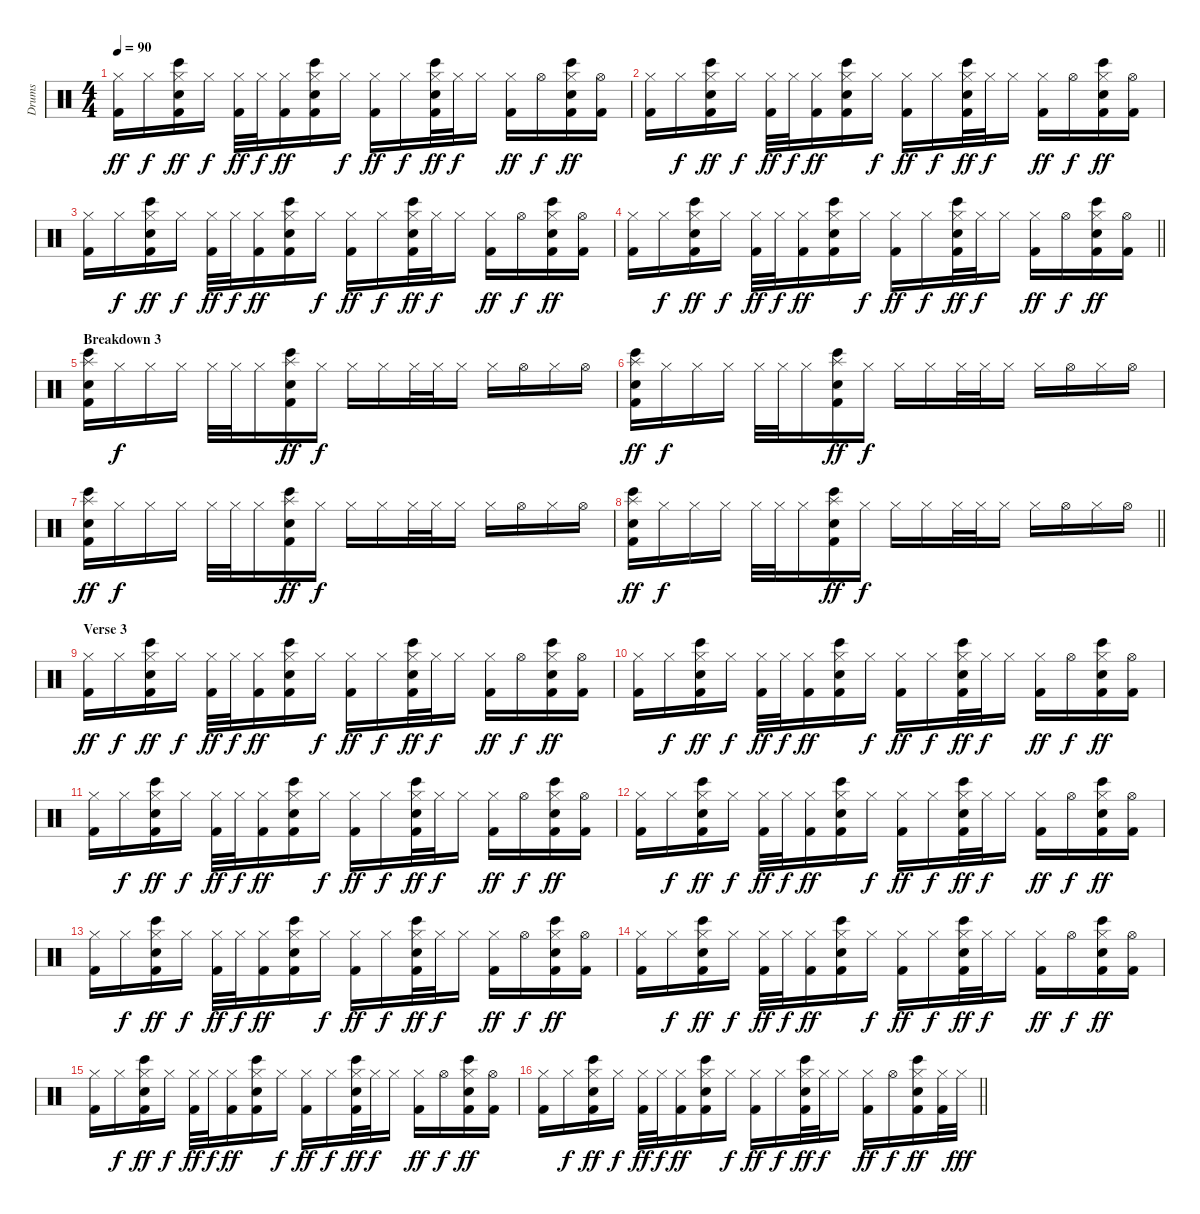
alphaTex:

\track ("Drums" "Drums") {instrument percussion}
\staff {score}
\articulation defaults
\ts (4 4)
\tempo 90
\clef neutral
\ks c
("Hi-Hat (closed)" "Kick (hit) 2").16{dy ff} "Hi-Hat (closed)".16{dy f} ("Hi-Hat (closed)" "Electric Snare (hit)" "Bongo High (hit)" "Kick (hit) 2").16{dy ff} "Hi-Hat (closed)".16{dy f} ("Hi-Hat (closed)" "Kick (hit) 2").32{dy ff} "Hi-Hat (closed)".32{dy f} ("Hi-Hat (closed)" "Kick (hit) 2").16{dy ff} ("Hi-Hat (closed)" "Electric Snare (hit)" "Bongo High (hit)" "Kick (hit) 2").16 "Hi-Hat (closed)".16{dy f} ("Hi-Hat (closed)" "Kick (hit) 2").16{dy ff} "Hi-Hat (closed)".16{dy f} ("Hi-Hat (closed)" "Electric Snare (hit)" "Bongo High (hit)" "Kick (hit) 2").32{dy ff} "Hi-Hat (closed)".32{dy f} "Hi-Hat (closed)".16 ("Hi-Hat (closed)" "Kick (hit) 2").16{dy ff} "Hi-Hat (open)".16{dy f} ("Hi-Hat (closed)" "Electric Snare (hit)" "Bongo High (hit)" "Kick (hit) 2").16{dy ff} ("Hi-Hat (open)" "Kick (hit) 2").16 |
("Hi-Hat (closed)" "Kick (hit) 2").16 "Hi-Hat (closed)".16{dy f} ("Hi-Hat (closed)" "Electric Snare (hit)" "Bongo High (hit)" "Kick (hit) 2").16{dy ff} "Hi-Hat (closed)".16{dy f} ("Hi-Hat (closed)" "Kick (hit) 2").32{dy ff} "Hi-Hat (closed)".32{dy f} ("Hi-Hat (closed)" "Kick (hit) 2").16{dy ff} ("Hi-Hat (closed)" "Electric Snare (hit)" "Bongo High (hit)" "Kick (hit) 2").16 "Hi-Hat (closed)".16{dy f} ("Hi-Hat (closed)" "Kick (hit) 2").16{dy ff} "Hi-Hat (closed)".16{dy f} ("Hi-Hat (closed)" "Electric Snare (hit)" "Bongo High (hit)" "Kick (hit) 2").32{dy ff} "Hi-Hat (closed)".32{dy f} "Hi-Hat (closed)".16 ("Hi-Hat (closed)" "Kick (hit) 2").16{dy ff} "Hi-Hat (open)".16{dy f} ("Hi-Hat (closed)" "Electric Snare (hit)" "Bongo High (hit)" "Kick (hit) 2").16{dy ff} ("Hi-Hat (open)" "Kick (hit) 2").16 |
("Hi-Hat (closed)" "Kick (hit) 2").16 "Hi-Hat (closed)".16{dy f} ("Hi-Hat (closed)" "Electric Snare (hit)" "Bongo High (hit)" "Kick (hit) 2").16{dy ff} "Hi-Hat (closed)".16{dy f} ("Hi-Hat (closed)" "Kick (hit) 2").32{dy ff} "Hi-Hat (closed)".32{dy f} ("Hi-Hat (closed)" "Kick (hit) 2").16{dy ff} ("Hi-Hat (closed)" "Electric Snare (hit)" "Bongo High (hit)" "Kick (hit) 2").16 "Hi-Hat (closed)".16{dy f} ("Hi-Hat (closed)" "Kick (hit) 2").16{dy ff} "Hi-Hat (closed)".16{dy f} ("Hi-Hat (closed)" "Electric Snare (hit)" "Bongo High (hit)" "Kick (hit) 2").32{dy ff} "Hi-Hat (closed)".32{dy f} "Hi-Hat (closed)".16 ("Hi-Hat (closed)" "Kick (hit) 2").16{dy ff} "Hi-Hat (open)".16{dy f} ("Hi-Hat (closed)" "Electric Snare (hit)" "Bongo High (hit)" "Kick (hit) 2").16{dy ff} ("Hi-Hat (open)" "Kick (hit) 2").16 |
\barLineRight lightlight
("Hi-Hat (closed)" "Kick (hit) 2").16 "Hi-Hat (closed)".16{dy f} ("Hi-Hat (closed)" "Electric Snare (hit)" "Bongo High (hit)" "Kick (hit) 2").16{dy ff} "Hi-Hat (closed)".16{dy f} ("Hi-Hat (closed)" "Kick (hit) 2").32{dy ff} "Hi-Hat (closed)".32{dy f} ("Hi-Hat (closed)" "Kick (hit) 2").16{dy ff} ("Hi-Hat (closed)" "Electric Snare (hit)" "Bongo High (hit)" "Kick (hit) 2").16 "Hi-Hat (closed)".16{dy f} ("Hi-Hat (closed)" "Kick (hit) 2").16{dy ff} "Hi-Hat (closed)".16{dy f} ("Hi-Hat (closed)" "Electric Snare (hit)" "Bongo High (hit)" "Kick (hit) 2").32{dy ff} "Hi-Hat (closed)".32{dy f} "Hi-Hat (closed)".16 ("Hi-Hat (closed)" "Kick (hit) 2").16{dy ff} "Hi-Hat (open)".16{dy f} ("Hi-Hat (closed)" "Electric Snare (hit)" "Bongo High (hit)" "Kick (hit) 2").16{dy ff} ("Hi-Hat (open)" "Kick (hit) 2").16 |
\section ("" "Breakdown 3")
("Splash (hit)" "Electric Snare (hit)" "Bongo High (hit)" "Kick (hit) 2").16 "Hi-Hat (closed)".16{dy f} "Hi-Hat (closed)".16 "Hi-Hat (closed)".16 "Hi-Hat (closed)".32 "Hi-Hat (closed)".32 "Hi-Hat (closed)".16 ("Splash (hit)" "Electric Snare (hit)" "Bongo High (hit)" "Kick (hit) 2").16{dy ff} "Hi-Hat (closed)".16{dy f} "Hi-Hat (closed)".16 "Hi-Hat (closed)".16 "Hi-Hat (closed)".32 "Hi-Hat (closed)".32 "Hi-Hat (closed)".16 "Hi-Hat (closed)".16 "Hi-Hat (open)".16 "Hi-Hat (closed)".16 "Hi-Hat (open)".16 |
("Splash (hit)" "Electric Snare (hit)" "Bongo High (hit)" "Kick (hit) 2").16{dy ff} "Hi-Hat (closed)".16{dy f} "Hi-Hat (closed)".16 "Hi-Hat (closed)".16 "Hi-Hat (closed)".32 "Hi-Hat (closed)".32 "Hi-Hat (closed)".16 ("Splash (hit)" "Electric Snare (hit)" "Bongo High (hit)" "Kick (hit) 2").16{dy ff} "Hi-Hat (closed)".16{dy f} "Hi-Hat (closed)".16 "Hi-Hat (closed)".16 "Hi-Hat (closed)".32 "Hi-Hat (closed)".32 "Hi-Hat (closed)".16 "Hi-Hat (closed)".16 "Hi-Hat (open)".16 "Hi-Hat (closed)".16 "Hi-Hat (open)".16 |
("Splash (hit)" "Electric Snare (hit)" "Bongo High (hit)" "Kick (hit) 2").16{dy ff} "Hi-Hat (closed)".16{dy f} "Hi-Hat (closed)".16 "Hi-Hat (closed)".16 "Hi-Hat (closed)".32 "Hi-Hat (closed)".32 "Hi-Hat (closed)".16 ("Splash (hit)" "Electric Snare (hit)" "Bongo High (hit)" "Kick (hit) 2").16{dy ff} "Hi-Hat (closed)".16{dy f} "Hi-Hat (closed)".16 "Hi-Hat (closed)".16 "Hi-Hat (closed)".32 "Hi-Hat (closed)".32 "Hi-Hat (closed)".16 "Hi-Hat (closed)".16 "Hi-Hat (open)".16 "Hi-Hat (closed)".16 "Hi-Hat (open)".16 |
\barLineRight lightlight
("Splash (hit)" "Electric Snare (hit)" "Bongo High (hit)" "Kick (hit) 2").16{dy ff} "Hi-Hat (closed)".16{dy f} "Hi-Hat (closed)".16 "Hi-Hat (closed)".16 "Hi-Hat (closed)".32 "Hi-Hat (closed)".32 "Hi-Hat (closed)".16 ("Splash (hit)" "Electric Snare (hit)" "Bongo High (hit)" "Kick (hit) 2").16{dy ff} "Hi-Hat (closed)".16{dy f} "Hi-Hat (closed)".16 "Hi-Hat (closed)".16 "Hi-Hat (closed)".32 "Hi-Hat (closed)".32 "Hi-Hat (closed)".16 "Hi-Hat (closed)".16 "Hi-Hat (open)".16 "Hi-Hat (closed)".16 "Hi-Hat (open)".16 |
\section ("" "Verse 3")
("Hi-Hat (closed)" "Kick (hit) 2").16{dy ff} "Hi-Hat (closed)".16{dy f} ("Hi-Hat (closed)" "Electric Snare (hit)" "Bongo High (hit)" "Kick (hit) 2").16{dy ff} "Hi-Hat (closed)".16{dy f} ("Hi-Hat (closed)" "Kick (hit) 2").32{dy ff} "Hi-Hat (closed)".32{dy f} ("Hi-Hat (closed)" "Kick (hit) 2").16{dy ff} ("Hi-Hat (closed)" "Electric Snare (hit)" "Bongo High (hit)" "Kick (hit) 2").16 "Hi-Hat (closed)".16{dy f} ("Hi-Hat (closed)" "Kick (hit) 2").16{dy ff} "Hi-Hat (closed)".16{dy f} ("Hi-Hat (closed)" "Electric Snare (hit)" "Bongo High (hit)" "Kick (hit) 2").32{dy ff} "Hi-Hat (closed)".32{dy f} "Hi-Hat (closed)".16 ("Hi-Hat (closed)" "Kick (hit) 2").16{dy ff} "Hi-Hat (open)".16{dy f} ("Hi-Hat (closed)" "Electric Snare (hit)" "Bongo High (hit)" "Kick (hit) 2").16{dy ff} ("Hi-Hat (open)" "Kick (hit) 2").16 |
("Hi-Hat (closed)" "Kick (hit) 2").16 "Hi-Hat (closed)".16{dy f} ("Hi-Hat (closed)" "Electric Snare (hit)" "Bongo High (hit)" "Kick (hit) 2").16{dy ff} "Hi-Hat (closed)".16{dy f} ("Hi-Hat (closed)" "Kick (hit) 2").32{dy ff} "Hi-Hat (closed)".32{dy f} ("Hi-Hat (closed)" "Kick (hit) 2").16{dy ff} ("Hi-Hat (closed)" "Electric Snare (hit)" "Bongo High (hit)" "Kick (hit) 2").16 "Hi-Hat (closed)".16{dy f} ("Hi-Hat (closed)" "Kick (hit) 2").16{dy ff} "Hi-Hat (closed)".16{dy f} ("Hi-Hat (closed)" "Electric Snare (hit)" "Bongo High (hit)" "Kick (hit) 2").32{dy ff} "Hi-Hat (closed)".32{dy f} "Hi-Hat (closed)".16 ("Hi-Hat (closed)" "Kick (hit) 2").16{dy ff} "Hi-Hat (open)".16{dy f} ("Hi-Hat (closed)" "Electric Snare (hit)" "Bongo High (hit)" "Kick (hit) 2").16{dy ff} ("Hi-Hat (open)" "Kick (hit) 2").16 |
("Hi-Hat (closed)" "Kick (hit) 2").16 "Hi-Hat (closed)".16{dy f} ("Hi-Hat (closed)" "Electric Snare (hit)" "Bongo High (hit)" "Kick (hit) 2").16{dy ff} "Hi-Hat (closed)".16{dy f} ("Hi-Hat (closed)" "Kick (hit) 2").32{dy ff} "Hi-Hat (closed)".32{dy f} ("Hi-Hat (closed)" "Kick (hit) 2").16{dy ff} ("Hi-Hat (closed)" "Electric Snare (hit)" "Bongo High (hit)" "Kick (hit) 2").16 "Hi-Hat (closed)".16{dy f} ("Hi-Hat (closed)" "Kick (hit) 2").16{dy ff} "Hi-Hat (closed)".16{dy f} ("Hi-Hat (closed)" "Electric Snare (hit)" "Bongo High (hit)" "Kick (hit) 2").32{dy ff} "Hi-Hat (closed)".32{dy f} "Hi-Hat (closed)".16 ("Hi-Hat (closed)" "Kick (hit) 2").16{dy ff} "Hi-Hat (open)".16{dy f} ("Hi-Hat (closed)" "Electric Snare (hit)" "Bongo High (hit)" "Kick (hit) 2").16{dy ff} ("Hi-Hat (open)" "Kick (hit) 2").16 |
("Hi-Hat (closed)" "Kick (hit) 2").16 "Hi-Hat (closed)".16{dy f} ("Hi-Hat (closed)" "Electric Snare (hit)" "Bongo High (hit)" "Kick (hit) 2").16{dy ff} "Hi-Hat (closed)".16{dy f} ("Hi-Hat (closed)" "Kick (hit) 2").32{dy ff} "Hi-Hat (closed)".32{dy f} ("Hi-Hat (closed)" "Kick (hit) 2").16{dy ff} ("Hi-Hat (closed)" "Electric Snare (hit)" "Bongo High (hit)" "Kick (hit) 2").16 "Hi-Hat (closed)".16{dy f} ("Hi-Hat (closed)" "Kick (hit) 2").16{dy ff} "Hi-Hat (closed)".16{dy f} ("Hi-Hat (closed)" "Electric Snare (hit)" "Bongo High (hit)" "Kick (hit) 2").32{dy ff} "Hi-Hat (closed)".32{dy f} "Hi-Hat (closed)".16 ("Hi-Hat (closed)" "Kick (hit) 2").16{dy ff} "Hi-Hat (open)".16{dy f} ("Hi-Hat (closed)" "Electric Snare (hit)" "Bongo High (hit)" "Kick (hit) 2").16{dy ff} ("Hi-Hat (open)" "Kick (hit) 2").16 |
("Hi-Hat (closed)" "Kick (hit) 2").16 "Hi-Hat (closed)".16{dy f} ("Hi-Hat (closed)" "Electric Snare (hit)" "Bongo High (hit)" "Kick (hit) 2").16{dy ff} "Hi-Hat (closed)".16{dy f} ("Hi-Hat (closed)" "Kick (hit) 2").32{dy ff} "Hi-Hat (closed)".32{dy f} ("Hi-Hat (closed)" "Kick (hit) 2").16{dy ff} ("Hi-Hat (closed)" "Electric Snare (hit)" "Bongo High (hit)" "Kick (hit) 2").16 "Hi-Hat (closed)".16{dy f} ("Hi-Hat (closed)" "Kick (hit) 2").16{dy ff} "Hi-Hat (closed)".16{dy f} ("Hi-Hat (closed)" "Electric Snare (hit)" "Bongo High (hit)" "Kick (hit) 2").32{dy ff} "Hi-Hat (closed)".32{dy f} "Hi-Hat (closed)".16 ("Hi-Hat (closed)" "Kick (hit) 2").16{dy ff} "Hi-Hat (open)".16{dy f} ("Hi-Hat (closed)" "Electric Snare (hit)" "Bongo High (hit)" "Kick (hit) 2").16{dy ff} ("Hi-Hat (open)" "Kick (hit) 2").16 |
("Hi-Hat (closed)" "Kick (hit) 2").16 "Hi-Hat (closed)".16{dy f} ("Hi-Hat (closed)" "Electric Snare (hit)" "Bongo High (hit)" "Kick (hit) 2").16{dy ff} "Hi-Hat (closed)".16{dy f} ("Hi-Hat (closed)" "Kick (hit) 2").32{dy ff} "Hi-Hat (closed)".32{dy f} ("Hi-Hat (closed)" "Kick (hit) 2").16{dy ff} ("Hi-Hat (closed)" "Electric Snare (hit)" "Bongo High (hit)" "Kick (hit) 2").16 "Hi-Hat (closed)".16{dy f} ("Hi-Hat (closed)" "Kick (hit) 2").16{dy ff} "Hi-Hat (closed)".16{dy f} ("Hi-Hat (closed)" "Electric Snare (hit)" "Bongo High (hit)" "Kick (hit) 2").32{dy ff} "Hi-Hat (closed)".32{dy f} "Hi-Hat (closed)".16 ("Hi-Hat (closed)" "Kick (hit) 2").16{dy ff} "Hi-Hat (open)".16{dy f} ("Hi-Hat (closed)" "Electric Snare (hit)" "Bongo High (hit)" "Kick (hit) 2").16{dy ff} ("Hi-Hat (open)" "Kick (hit) 2").16 |
("Hi-Hat (closed)" "Kick (hit) 2").16 "Hi-Hat (closed)".16{dy f} ("Hi-Hat (closed)" "Electric Snare (hit)" "Bongo High (hit)" "Kick (hit) 2").16{dy ff} "Hi-Hat (closed)".16{dy f} ("Hi-Hat (closed)" "Kick (hit) 2").32{dy ff} "Hi-Hat (closed)".32{dy f} ("Hi-Hat (closed)" "Kick (hit) 2").16{dy ff} ("Hi-Hat (closed)" "Electric Snare (hit)" "Bongo High (hit)" "Kick (hit) 2").16 "Hi-Hat (closed)".16{dy f} ("Hi-Hat (closed)" "Kick (hit) 2").16{dy ff} "Hi-Hat (closed)".16{dy f} ("Hi-Hat (closed)" "Electric Snare (hit)" "Bongo High (hit)" "Kick (hit) 2").32{dy ff} "Hi-Hat (closed)".32{dy f} "Hi-Hat (closed)".16 ("Hi-Hat (closed)" "Kick (hit) 2").16{dy ff} "Hi-Hat (open)".16{dy f} ("Hi-Hat (closed)" "Electric Snare (hit)" "Bongo High (hit)" "Kick (hit) 2").16{dy ff} ("Hi-Hat (open)" "Kick (hit) 2").16 |
\barLineRight lightlight
("Hi-Hat (closed)" "Kick (hit) 2").16 "Hi-Hat (closed)".16{dy f} ("Hi-Hat (closed)" "Electric Snare (hit)" "Bongo High (hit)" "Kick (hit) 2").16{dy ff} "Hi-Hat (closed)".16{dy f} ("Hi-Hat (closed)" "Kick (hit) 2").32{dy ff} "Hi-Hat (closed)".32{dy f} ("Hi-Hat (closed)" "Kick (hit) 2").16{dy ff} ("Hi-Hat (closed)" "Electric Snare (hit)" "Bongo High (hit)" "Kick (hit) 2").16 "Hi-Hat (closed)".16{dy f} ("Hi-Hat (closed)" "Kick (hit) 2").16{dy ff} "Hi-Hat (closed)".16{dy f} ("Hi-Hat (closed)" "Electric Snare (hit)" "Bongo High (hit)" "Kick (hit) 2").32{dy ff} "Hi-Hat (closed)".32{dy f} "Hi-Hat (closed)".16 ("Hi-Hat (closed)" "Kick (hit) 2").16{dy ff} "Hi-Hat (open)".16{dy f} ("Hi-Hat (closed)" "Electric Snare (hit)" "Bongo High (hit)" "Kick (hit) 2").16{dy ff} ("Hi-Hat (closed)" "Kick (hit) 2").32 "Hi-Hat (closed)".32{dy fff}
